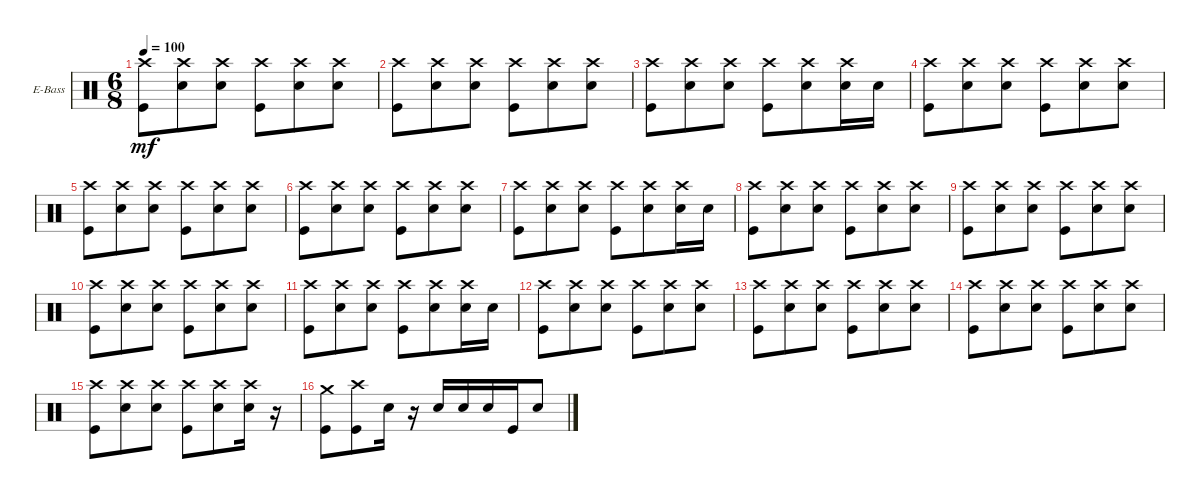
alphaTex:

\defaultSystemsLayout 4
\bracketExtendMode groupsimilarinstruments
\firstSystemTrackNameOrientation horizontal
\otherSystemsTrackNameOrientation horizontal
\track ("Drums" "E-Bass") {instrument percussion}
\staff {score}
\articulation defaults
\ts (6 8)
\tempo 100
\clef neutral
\ks c
("Crash high (hit)" "Kick (hit)").8{dy mf} ("Crash high (hit)" "Snare (hit) 2").8 ("Crash high (hit)" "Snare (hit) 2").8 ("Crash high (hit)" "Kick (hit)").8 ("Snare (hit) 2" "Crash high (hit)").8 ("Snare (hit) 2" "Crash high (hit)").8 |
("Crash high (hit)" "Kick (hit)").8 ("Crash high (hit)" "Snare (hit) 2").8 ("Crash high (hit)" "Snare (hit) 2").8 ("Crash high (hit)" "Kick (hit)").8 ("Snare (hit) 2" "Crash high (hit)").8 ("Snare (hit) 2" "Crash high (hit)").8 |
("Crash high (hit)" "Kick (hit)").8 ("Crash high (hit)" "Snare (hit) 2").8 ("Crash high (hit)" "Snare (hit) 2").8 ("Crash high (hit)" "Kick (hit)").8 ("Snare (hit) 2" "Crash high (hit)").8 ("Snare (hit) 2" "Crash high (hit)").16 "Snare (hit) 2".16 |
("Crash high (hit)" "Kick (hit)").8 ("Crash high (hit)" "Snare (hit) 2").8 ("Crash high (hit)" "Snare (hit) 2").8 ("Crash high (hit)" "Kick (hit)").8 ("Snare (hit) 2" "Crash high (hit)").8 ("Snare (hit) 2" "Crash high (hit)").8 |
("Crash high (hit)" "Kick (hit)").8 ("Crash high (hit)" "Snare (hit) 2").8 ("Crash high (hit)" "Snare (hit) 2").8 ("Crash high (hit)" "Kick (hit)").8 ("Snare (hit) 2" "Crash high (hit)").8 ("Snare (hit) 2" "Crash high (hit)").8 |
("Crash high (hit)" "Kick (hit)").8 ("Crash high (hit)" "Snare (hit) 2").8 ("Crash high (hit)" "Snare (hit) 2").8 ("Crash high (hit)" "Kick (hit)").8 ("Snare (hit) 2" "Crash high (hit)").8 ("Snare (hit) 2" "Crash high (hit)").8 |
("Crash high (hit)" "Kick (hit)").8 ("Crash high (hit)" "Snare (hit) 2").8 ("Crash high (hit)" "Snare (hit) 2").8 ("Crash high (hit)" "Kick (hit)").8 ("Snare (hit) 2" "Crash high (hit)").8 ("Snare (hit) 2" "Crash high (hit)").16 "Snare (hit) 2".16 |
("Crash high (hit)" "Kick (hit)").8 ("Crash high (hit)" "Snare (hit) 2").8 ("Crash high (hit)" "Snare (hit) 2").8 ("Crash high (hit)" "Kick (hit)").8 ("Snare (hit) 2" "Crash high (hit)").8 ("Snare (hit) 2" "Crash high (hit)").8 |
("Crash high (hit)" "Kick (hit)").8 ("Crash high (hit)" "Snare (hit) 2").8 ("Crash high (hit)" "Snare (hit) 2").8 ("Crash high (hit)" "Kick (hit)").8 ("Snare (hit) 2" "Crash high (hit)").8 ("Snare (hit) 2" "Crash high (hit)").8 |
("Crash high (hit)" "Kick (hit)").8 ("Crash high (hit)" "Snare (hit) 2").8 ("Crash high (hit)" "Snare (hit) 2").8 ("Crash high (hit)" "Kick (hit)").8 ("Snare (hit) 2" "Crash high (hit)").8 ("Snare (hit) 2" "Crash high (hit)").8 |
("Crash high (hit)" "Kick (hit)").8 ("Crash high (hit)" "Snare (hit) 2").8 ("Crash high (hit)" "Snare (hit) 2").8 ("Crash high (hit)" "Kick (hit)").8 ("Snare (hit) 2" "Crash high (hit)").8 ("Snare (hit) 2" "Crash high (hit)").16 "Snare (hit) 2".16 |
("Crash high (hit)" "Kick (hit)").8 ("Crash high (hit)" "Snare (hit) 2").8 ("Crash high (hit)" "Snare (hit) 2").8 ("Crash high (hit)" "Kick (hit)").8 ("Snare (hit) 2" "Crash high (hit)").8 ("Snare (hit) 2" "Crash high (hit)").8 |
("Crash high (hit)" "Kick (hit)").8 ("Crash high (hit)" "Snare (hit) 2").8 ("Crash high (hit)" "Snare (hit) 2").8 ("Crash high (hit)" "Kick (hit)").8 ("Snare (hit) 2" "Crash high (hit)").8 ("Snare (hit) 2" "Crash high (hit)").8 |
("Crash high (hit)" "Kick (hit)").8 ("Crash high (hit)" "Snare (hit) 2").8 ("Crash high (hit)" "Snare (hit) 2").8 ("Crash high (hit)" "Kick (hit)").8 ("Snare (hit) 2" "Crash high (hit)").8 ("Snare (hit) 2" "Crash high (hit)").8 |
("Crash high (hit)" "Kick (hit)").8 ("Crash high (hit)" "Snare (hit) 2").8 ("Crash high (hit)" "Snare (hit) 2").8 ("Crash high (hit)" "Kick (hit)").8 ("Snare (hit) 2" "Crash high (hit)").8 ("Snare (hit) 2" "Crash high (hit)").16 r.16 |
("Kick (hit)" "Crash medium (hit)").8 ("Kick (hit)" "Crash high (hit)").8 "Snare (hit) 2".16 r.16 "Snare (hit) 2".16 "Snare (hit) 2".16 "Snare (hit) 2".16 "Kick (hit)".16 "Snare (hit) 2".8
